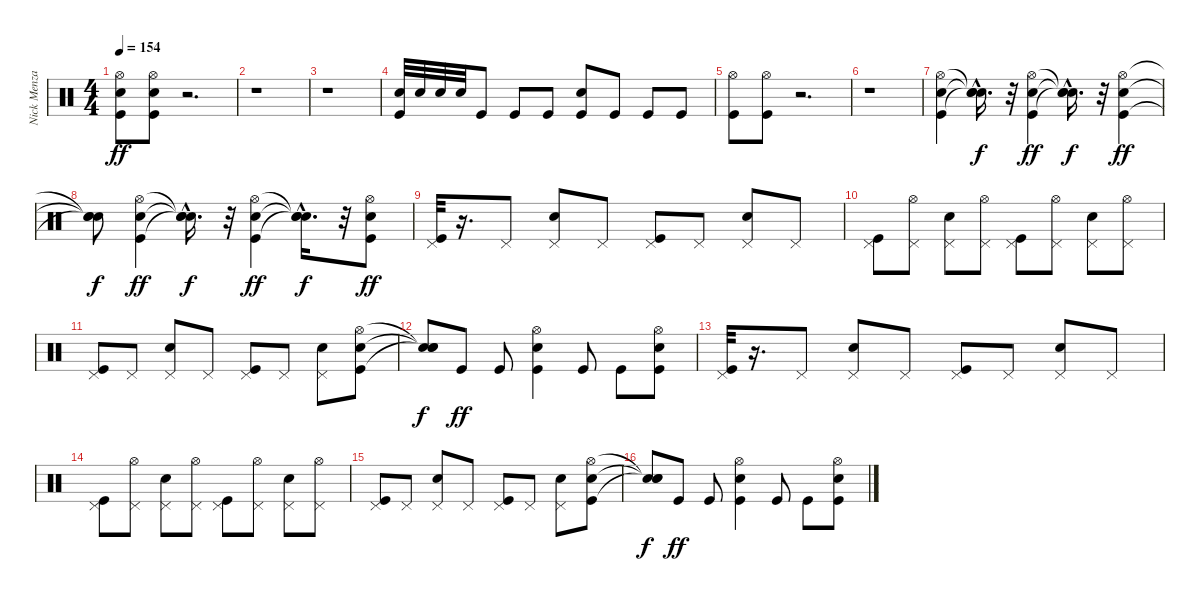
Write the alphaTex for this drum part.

\track ("Nick Menza" "Nick Menza") {instrument percussion}
\staff {score}
\articulation defaults
\ts (4 4)
\tempo 154
\clef neutral
\ks c
("Kick (hit)" "Electric Snare (hit)" "Hi-Hat (open)").8{dy ff} ("Kick (hit)" "Electric Snare (hit)" "Hi-Hat (open)").8 r.2{d} |
r.1 |
r.1 |
("Kick (hit)" "Electric Snare (hit)").32 "Electric Snare (hit)".32 "Electric Snare (hit)".32 "Electric Snare (hit)".32 "Kick (hit)".8 "Kick (hit)".8 "Kick (hit)".8 ("Kick (hit)" "Electric Snare (hit)").8 "Kick (hit)".8 "Kick (hit)".8 "Kick (hit)".8 |
("Hi-Hat (open)" "Kick (hit)").8 ("Hi-Hat (open)" "Kick (hit)").8 r.2{d} |
r.1 |
("Hi-Hat (open)" "Electric Snare (hit)" "Kick (hit)").4 ("Snare (hit)"{hac t} "Snare (hit)"{hac t} "Snare (hit)"{hac t}).16{d dy f} r.32 ("Hi-Hat (open)" "Electric Snare (hit)" "Kick (hit)").4{dy ff} ("Snare (hit)"{hac t} "Snare (hit)"{hac t} "Snare (hit)"{hac t}).16{d dy f} r.32 ("Kick (hit)" "Electric Snare (hit)" "Hi-Hat (open)").4{dy ff} |
("Snare (hit)"{t} "Snare (hit)"{t} "Snare (hit)"{t}).8{dy f} ("Hi-Hat (open)" "Kick (hit)" "Electric Snare (hit)").4{dy ff} ("Snare (hit)"{hac t} "Snare (hit)"{hac t} "Snare (hit)"{hac t}).16{d dy f} r.32 ("Kick (hit)" "Electric Snare (hit)" "Hi-Hat (open)").4{dy ff} ("Snare (hit)"{hac t} "Snare (hit)"{hac t} "Snare (hit)"{hac t}).16{d dy f} r.32 ("Kick (hit)" "Electric Snare (hit)" "Hi-Hat (open)").8{dy ff} |
("Pedal Hi-Hat (hit)" "Kick (hit)").32 r.16{d} "Pedal Hi-Hat (hit)".8 ("Electric Snare (hit)" "Pedal Hi-Hat (hit)").8 "Pedal Hi-Hat (hit)".8 ("Kick (hit)" "Pedal Hi-Hat (hit)").8 "Pedal Hi-Hat (hit)".8 ("Electric Snare (hit)" "Pedal Hi-Hat (hit)").8 "Pedal Hi-Hat (hit)".8 |
("Pedal Hi-Hat (hit)" "Kick (hit)").8 ("Hi-Hat (open)" "Pedal Hi-Hat (hit)").8 ("Pedal Hi-Hat (hit)" "Electric Snare (hit)").8 ("Pedal Hi-Hat (hit)" "Hi-Hat (open)").8 ("Kick (hit)" "Pedal Hi-Hat (hit)").8 ("Pedal Hi-Hat (hit)" "Hi-Hat (open)").8 ("Electric Snare (hit)" "Pedal Hi-Hat (hit)").8 ("Pedal Hi-Hat (hit)" "Hi-Hat (open)").8 |
("Kick (hit)" "Pedal Hi-Hat (hit)").8 "Pedal Hi-Hat (hit)".8 ("Electric Snare (hit)" "Pedal Hi-Hat (hit)").8 "Pedal Hi-Hat (hit)".8 ("Pedal Hi-Hat (hit)" "Kick (hit)").8 "Pedal Hi-Hat (hit)".8 ("Pedal Hi-Hat (hit)" "Electric Snare (hit)").8 ("Kick (hit)" "Electric Snare (hit)" "Hi-Hat (open)").8 |
("Snare (hit)"{t} "Snare (hit)"{t} "Snare (hit)"{t}).8{dy f} "Kick (hit)".8{dy ff} "Kick (hit)".8 ("Kick (hit)" "Electric Snare (hit)" "Hi-Hat (open)").4 "Kick (hit)".8 "Kick (hit)".8 ("Kick (hit)" "Electric Snare (hit)" "Hi-Hat (open)").8 |
("Pedal Hi-Hat (hit)" "Kick (hit)").32 r.16{d} "Pedal Hi-Hat (hit)".8 ("Pedal Hi-Hat (hit)" "Electric Snare (hit)").8 "Pedal Hi-Hat (hit)".8 ("Kick (hit)" "Pedal Hi-Hat (hit)").8 "Pedal Hi-Hat (hit)".8 ("Electric Snare (hit)" "Pedal Hi-Hat (hit)").8 "Pedal Hi-Hat (hit)".8 |
("Kick (hit)" "Pedal Hi-Hat (hit)").8 ("Hi-Hat (open)" "Pedal Hi-Hat (hit)").8 ("Electric Snare (hit)" "Pedal Hi-Hat (hit)").8 ("Pedal Hi-Hat (hit)" "Hi-Hat (open)").8 ("Kick (hit)" "Pedal Hi-Hat (hit)").8 ("Pedal Hi-Hat (hit)" "Hi-Hat (open)").8 ("Electric Snare (hit)" "Pedal Hi-Hat (hit)").8 ("Pedal Hi-Hat (hit)" "Hi-Hat (open)").8 |
("Kick (hit)" "Pedal Hi-Hat (hit)").8 "Pedal Hi-Hat (hit)".8 ("Electric Snare (hit)" "Pedal Hi-Hat (hit)").8 "Pedal Hi-Hat (hit)".8 ("Pedal Hi-Hat (hit)" "Kick (hit)").8 "Pedal Hi-Hat (hit)".8 ("Pedal Hi-Hat (hit)" "Electric Snare (hit)").8 ("Kick (hit)" "Electric Snare (hit)" "Hi-Hat (open)").8 |
("Snare (hit)"{t} "Snare (hit)"{t} "Snare (hit)"{t}).8{dy f} "Kick (hit)".8{dy ff} "Kick (hit)".8 ("Hi-Hat (open)" "Kick (hit)" "Electric Snare (hit)").4 "Kick (hit)".8 "Kick (hit)".8 ("Kick (hit)" "Electric Snare (hit)" "Hi-Hat (open)").8
